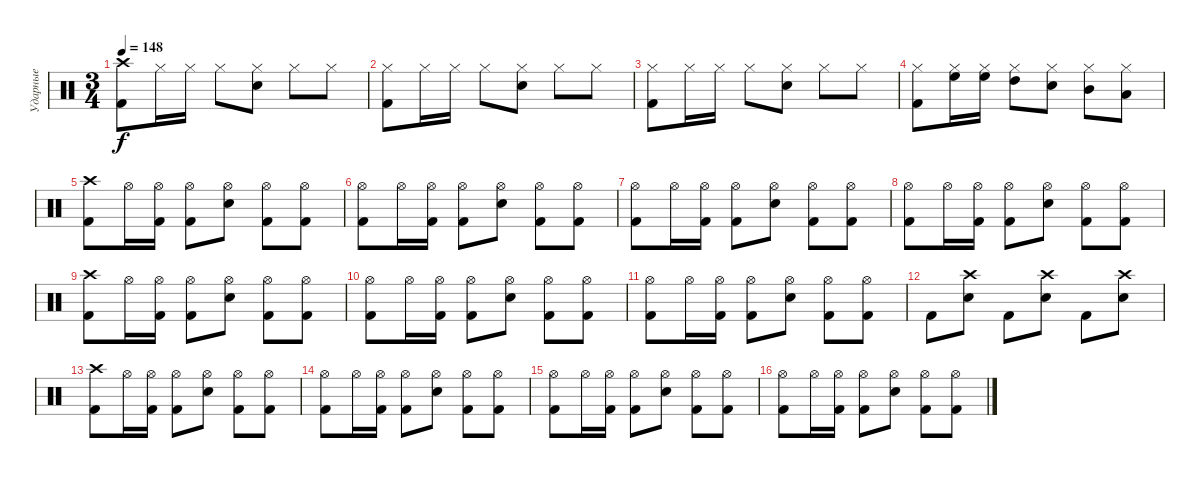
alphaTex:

\track ("Ударные" "Ударные") {instrument percussion}
\staff {score}
\articulation defaults
\ts (3 4)
\tempo 148
\clef neutral
\ks c
("Crash high (hit)" "Kick (hit) 2").8{dy f} "Hi-Hat (closed)".16 "Hi-Hat (closed)".16 "Hi-Hat (closed)".8 ("Hi-Hat (closed)" "Electric Snare (hit)").8 "Hi-Hat (closed)".8 "Hi-Hat (closed)".8 |
("Hi-Hat (closed)" "Kick (hit) 2").8 "Hi-Hat (closed)".16 "Hi-Hat (closed)".16 "Hi-Hat (closed)".8 ("Hi-Hat (closed)" "Electric Snare (hit)").8 "Hi-Hat (closed)".8 "Hi-Hat (closed)".8 |
("Hi-Hat (closed)" "Kick (hit) 2").8 "Hi-Hat (closed)".16 "Hi-Hat (closed)".16 "Hi-Hat (closed)".8 ("Hi-Hat (closed)" "Electric Snare (hit)").8 "Hi-Hat (closed)".8 "Hi-Hat (closed)".8 |
("Hi-Hat (closed)" "Kick (hit) 2").8 ("Hi-Hat (closed)" "High Floor Tom (hit)").16 ("Hi-Hat (closed)" "High Floor Tom (hit)").16 ("Hi-Hat (closed)" "High Tom (hit)").8 ("Hi-Hat (closed)" "Electric Snare (hit)").8 ("Hi-Hat (closed)" "Mid Tom (hit)").8 ("Hi-Hat (closed)" "Low Tom (hit)").8 |
("Crash high (hit)" "Kick (hit) 2").8 "Hi-Hat (open)".16 ("Hi-Hat (open)" "Kick (hit) 2").16 ("Hi-Hat (open)" "Kick (hit) 2").8 ("Hi-Hat (open)" "Electric Snare (hit)").8 ("Hi-Hat (open)" "Kick (hit) 2").8 ("Hi-Hat (open)" "Kick (hit) 2").8 |
("Hi-Hat (open)" "Kick (hit) 2").8 "Hi-Hat (open)".16 ("Hi-Hat (open)" "Kick (hit) 2").16 ("Hi-Hat (open)" "Kick (hit) 2").8 ("Hi-Hat (open)" "Electric Snare (hit)").8 ("Hi-Hat (open)" "Kick (hit) 2").8 ("Hi-Hat (open)" "Kick (hit) 2").8 |
("Hi-Hat (open)" "Kick (hit) 2").8 "Hi-Hat (open)".16 ("Hi-Hat (open)" "Kick (hit) 2").16 ("Hi-Hat (open)" "Kick (hit) 2").8 ("Hi-Hat (open)" "Electric Snare (hit)").8 ("Hi-Hat (open)" "Kick (hit) 2").8 ("Hi-Hat (open)" "Kick (hit) 2").8 |
("Hi-Hat (open)" "Kick (hit) 2").8 "Hi-Hat (open)".16 ("Hi-Hat (open)" "Kick (hit) 2").16 ("Hi-Hat (open)" "Kick (hit) 2").8 ("Hi-Hat (open)" "Electric Snare (hit)").8 ("Hi-Hat (open)" "Kick (hit) 2").8 ("Hi-Hat (open)" "Kick (hit) 2").8 |
("Crash high (hit)" "Kick (hit) 2").8 "Hi-Hat (open)".16 ("Hi-Hat (open)" "Kick (hit) 2").16 ("Hi-Hat (open)" "Kick (hit) 2").8 ("Hi-Hat (open)" "Electric Snare (hit)").8 ("Hi-Hat (open)" "Kick (hit) 2").8 ("Hi-Hat (open)" "Kick (hit) 2").8 |
("Hi-Hat (open)" "Kick (hit) 2").8 "Hi-Hat (open)".16 ("Hi-Hat (open)" "Kick (hit) 2").16 ("Hi-Hat (open)" "Kick (hit) 2").8 ("Hi-Hat (open)" "Electric Snare (hit)").8 ("Hi-Hat (open)" "Kick (hit) 2").8 ("Hi-Hat (open)" "Kick (hit) 2").8 |
("Hi-Hat (open)" "Kick (hit) 2").8 "Hi-Hat (open)".16 ("Hi-Hat (open)" "Kick (hit) 2").16 ("Hi-Hat (open)" "Kick (hit) 2").8 ("Hi-Hat (open)" "Electric Snare (hit)").8 ("Hi-Hat (open)" "Kick (hit) 2").8 ("Hi-Hat (open)" "Kick (hit) 2").8 |
"Kick (hit) 2".8 ("Crash high (hit)" "Electric Snare (hit)").8 "Kick (hit) 2".8 ("Crash high (hit)" "Electric Snare (hit)").8 "Kick (hit) 2".8 ("Crash high (hit)" "Electric Snare (hit)").8 |
("Crash high (hit)" "Kick (hit) 2").8 "Hi-Hat (open)".16 ("Hi-Hat (open)" "Kick (hit) 2").16 ("Hi-Hat (open)" "Kick (hit) 2").8 ("Hi-Hat (open)" "Electric Snare (hit)").8 ("Hi-Hat (open)" "Kick (hit) 2").8 ("Hi-Hat (open)" "Kick (hit) 2").8 |
("Hi-Hat (open)" "Kick (hit) 2").8 "Hi-Hat (open)".16 ("Hi-Hat (open)" "Kick (hit) 2").16 ("Hi-Hat (open)" "Kick (hit) 2").8 ("Hi-Hat (open)" "Electric Snare (hit)").8 ("Hi-Hat (open)" "Kick (hit) 2").8 ("Hi-Hat (open)" "Kick (hit) 2").8 |
("Hi-Hat (open)" "Kick (hit) 2").8 "Hi-Hat (open)".16 ("Hi-Hat (open)" "Kick (hit) 2").16 ("Hi-Hat (open)" "Kick (hit) 2").8 ("Hi-Hat (open)" "Electric Snare (hit)").8 ("Hi-Hat (open)" "Kick (hit) 2").8 ("Hi-Hat (open)" "Kick (hit) 2").8 |
("Hi-Hat (open)" "Kick (hit) 2").8 "Hi-Hat (open)".16 ("Hi-Hat (open)" "Kick (hit) 2").16 ("Hi-Hat (open)" "Kick (hit) 2").8 ("Hi-Hat (open)" "Electric Snare (hit)").8 ("Hi-Hat (open)" "Kick (hit) 2").8 ("Hi-Hat (open)" "Kick (hit) 2").8
